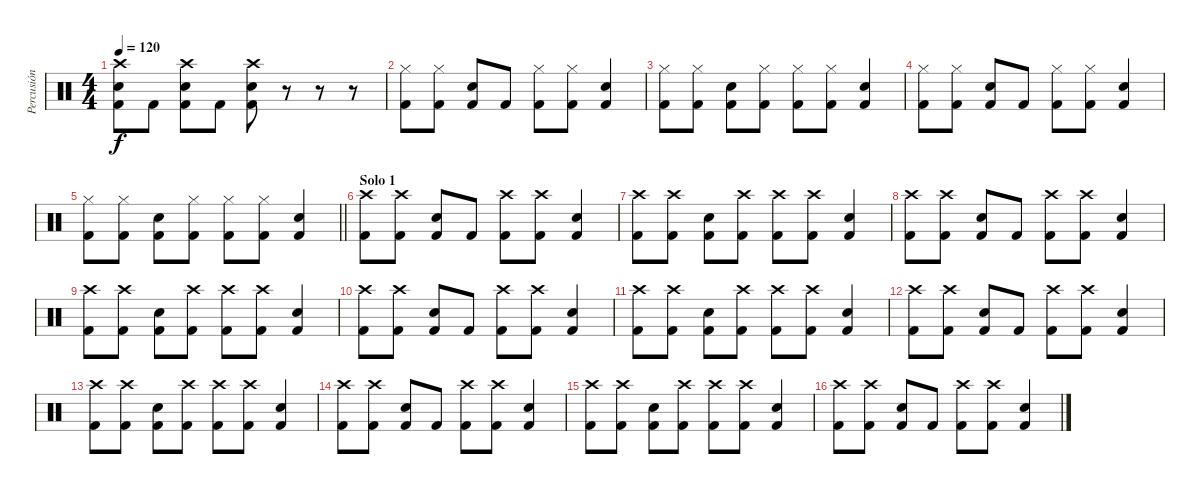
\track ("Percusión" "Percusión") {instrument percussion}
\staff {score}
\articulation defaults
\ts (4 4)
\tempo 120
\clef neutral
\ks c
("Crash high (hit)" "Snare (hit) 2" "Kick (hit) 2").8{dy f} "Kick (hit) 2".8 ("Crash high (hit)" "Snare (hit) 2" "Kick (hit) 2").8 "Kick (hit) 2".8 ("Crash high (hit)" "Snare (hit) 2" "Kick (hit) 2").8 r.8 r.8 r.8 |
("Hi-Hat (closed)" "Kick (hit) 2").8 ("Hi-Hat (closed)" "Kick (hit) 2").8 ("Snare (hit) 2" "Kick (hit) 2").8 "Kick (hit) 2".8 ("Hi-Hat (closed)" "Kick (hit) 2").8 ("Hi-Hat (closed)" "Kick (hit) 2").8 ("Snare (hit) 2" "Kick (hit) 2").4 |
("Hi-Hat (closed)" "Kick (hit) 2").8 ("Hi-Hat (closed)" "Kick (hit) 2").8 ("Snare (hit) 2" "Kick (hit) 2").8 ("Hi-Hat (closed)" "Kick (hit) 2").8 ("Hi-Hat (closed)" "Kick (hit) 2").8 ("Hi-Hat (closed)" "Kick (hit) 2").8 ("Snare (hit) 2" "Kick (hit) 2").4 |
("Hi-Hat (closed)" "Kick (hit) 2").8 ("Hi-Hat (closed)" "Kick (hit) 2").8 ("Snare (hit) 2" "Kick (hit) 2").8 "Kick (hit) 2".8 ("Hi-Hat (closed)" "Kick (hit) 2").8 ("Hi-Hat (closed)" "Kick (hit) 2").8 ("Snare (hit) 2" "Kick (hit) 2").4 |
\barLineRight lightlight
("Hi-Hat (closed)" "Kick (hit) 2").8 ("Hi-Hat (closed)" "Kick (hit) 2").8 ("Snare (hit) 2" "Kick (hit) 2").8 ("Hi-Hat (closed)" "Kick (hit) 2").8 ("Hi-Hat (closed)" "Kick (hit) 2").8 ("Hi-Hat (closed)" "Kick (hit) 2").8 ("Snare (hit) 2" "Kick (hit) 2").4 |
\section ("" "Solo 1")
("Crash high (hit)" "Kick (hit) 2").8 ("Crash high (hit)" "Kick (hit) 2").8 ("Snare (hit) 2" "Kick (hit) 2").8 "Kick (hit) 2".8 ("Crash high (hit)" "Kick (hit) 2").8 ("Crash high (hit)" "Kick (hit) 2").8 ("Snare (hit) 2" "Kick (hit) 2").4 |
("Crash high (hit)" "Kick (hit) 2").8 ("Crash high (hit)" "Kick (hit) 2").8 ("Snare (hit) 2" "Kick (hit) 2").8 ("Crash high (hit)" "Kick (hit) 2").8 ("Crash high (hit)" "Kick (hit) 2").8 ("Crash high (hit)" "Kick (hit) 2").8 ("Snare (hit) 2" "Kick (hit) 2").4 |
("Crash high (hit)" "Kick (hit) 2").8 ("Crash high (hit)" "Kick (hit) 2").8 ("Snare (hit) 2" "Kick (hit) 2").8 "Kick (hit) 2".8 ("Crash high (hit)" "Kick (hit) 2").8 ("Crash high (hit)" "Kick (hit) 2").8 ("Snare (hit) 2" "Kick (hit) 2").4 |
("Crash high (hit)" "Kick (hit) 2").8 ("Crash high (hit)" "Kick (hit) 2").8 ("Snare (hit) 2" "Kick (hit) 2").8 ("Crash high (hit)" "Kick (hit) 2").8 ("Crash high (hit)" "Kick (hit) 2").8 ("Crash high (hit)" "Kick (hit) 2").8 ("Snare (hit) 2" "Kick (hit) 2").4 |
("Crash high (hit)" "Kick (hit) 2").8 ("Crash high (hit)" "Kick (hit) 2").8 ("Snare (hit) 2" "Kick (hit) 2").8 "Kick (hit) 2".8 ("Crash high (hit)" "Kick (hit) 2").8 ("Crash high (hit)" "Kick (hit) 2").8 ("Snare (hit) 2" "Kick (hit) 2").4 |
("Crash high (hit)" "Kick (hit) 2").8 ("Crash high (hit)" "Kick (hit) 2").8 ("Snare (hit) 2" "Kick (hit) 2").8 ("Crash high (hit)" "Kick (hit) 2").8 ("Crash high (hit)" "Kick (hit) 2").8 ("Crash high (hit)" "Kick (hit) 2").8 ("Snare (hit) 2" "Kick (hit) 2").4 |
("Crash high (hit)" "Kick (hit) 2").8 ("Crash high (hit)" "Kick (hit) 2").8 ("Snare (hit) 2" "Kick (hit) 2").8 "Kick (hit) 2".8 ("Crash high (hit)" "Kick (hit) 2").8 ("Crash high (hit)" "Kick (hit) 2").8 ("Snare (hit) 2" "Kick (hit) 2").4 |
("Crash high (hit)" "Kick (hit) 2").8 ("Crash high (hit)" "Kick (hit) 2").8 ("Snare (hit) 2" "Kick (hit) 2").8 ("Crash high (hit)" "Kick (hit) 2").8 ("Crash high (hit)" "Kick (hit) 2").8 ("Crash high (hit)" "Kick (hit) 2").8 ("Snare (hit) 2" "Kick (hit) 2").4 |
("Crash high (hit)" "Kick (hit) 2").8 ("Crash high (hit)" "Kick (hit) 2").8 ("Snare (hit) 2" "Kick (hit) 2").8 "Kick (hit) 2".8 ("Crash high (hit)" "Kick (hit) 2").8 ("Crash high (hit)" "Kick (hit) 2").8 ("Snare (hit) 2" "Kick (hit) 2").4 |
("Crash high (hit)" "Kick (hit) 2").8 ("Crash high (hit)" "Kick (hit) 2").8 ("Snare (hit) 2" "Kick (hit) 2").8 ("Crash high (hit)" "Kick (hit) 2").8 ("Crash high (hit)" "Kick (hit) 2").8 ("Crash high (hit)" "Kick (hit) 2").8 ("Snare (hit) 2" "Kick (hit) 2").4 |
("Crash high (hit)" "Kick (hit) 2").8 ("Crash high (hit)" "Kick (hit) 2").8 ("Snare (hit) 2" "Kick (hit) 2").8 "Kick (hit) 2".8 ("Crash high (hit)" "Kick (hit) 2").8 ("Crash high (hit)" "Kick (hit) 2").8 ("Snare (hit) 2" "Kick (hit) 2").4
